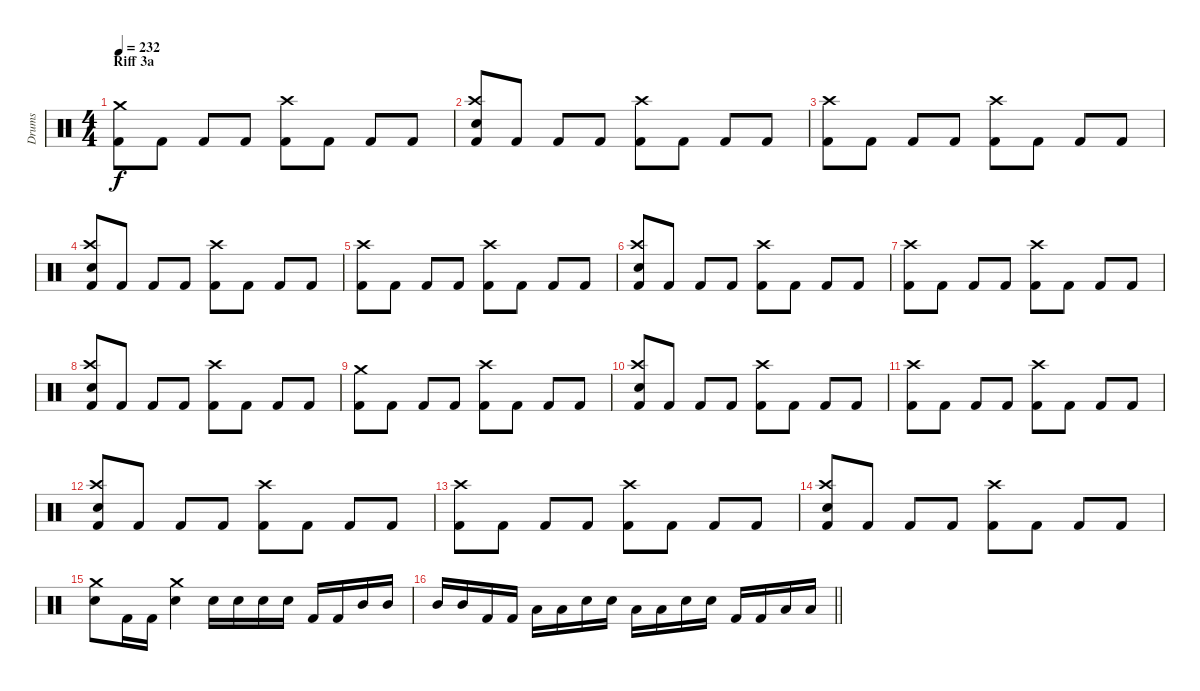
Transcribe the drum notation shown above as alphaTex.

\track ("Drums" "Drums") {instrument percussion}
\staff {score}
\articulation defaults
\ts (4 4)
\section ("" "Riff 3a")
\tempo 232
\clef neutral
\ks c
("Crash medium (hit)" "Kick (hit) 2").8{dy f} "Kick (hit) 2".8 "Kick (hit) 2".8 "Kick (hit) 2".8 ("Crash high (hit)" "Kick (hit) 2").8 "Kick (hit) 2".8 "Kick (hit) 2".8 "Kick (hit) 2".8 |
("Crash high (hit)" "Electric Snare (hit)" "Kick (hit) 2").8 "Kick (hit) 2".8 "Kick (hit) 2".8 "Kick (hit) 2".8 ("Crash high (hit)" "Kick (hit) 2").8 "Kick (hit) 2".8 "Kick (hit) 2".8 "Kick (hit) 2".8 |
("Crash high (hit)" "Kick (hit) 2").8 "Kick (hit) 2".8 "Kick (hit) 2".8 "Kick (hit) 2".8 ("Crash high (hit)" "Kick (hit) 2").8 "Kick (hit) 2".8 "Kick (hit) 2".8 "Kick (hit) 2".8 |
("Crash high (hit)" "Electric Snare (hit)" "Kick (hit) 2").8 "Kick (hit) 2".8 "Kick (hit) 2".8 "Kick (hit) 2".8 ("Crash high (hit)" "Kick (hit) 2").8 "Kick (hit) 2".8 "Kick (hit) 2".8 "Kick (hit) 2".8 |
("Crash high (hit)" "Kick (hit) 2").8 "Kick (hit) 2".8 "Kick (hit) 2".8 "Kick (hit) 2".8 ("Crash high (hit)" "Kick (hit) 2").8 "Kick (hit) 2".8 "Kick (hit) 2".8 "Kick (hit) 2".8 |
("Crash high (hit)" "Electric Snare (hit)" "Kick (hit) 2").8 "Kick (hit) 2".8 "Kick (hit) 2".8 "Kick (hit) 2".8 ("Crash high (hit)" "Kick (hit) 2").8 "Kick (hit) 2".8 "Kick (hit) 2".8 "Kick (hit) 2".8 |
("Crash high (hit)" "Kick (hit) 2").8 "Kick (hit) 2".8 "Kick (hit) 2".8 "Kick (hit) 2".8 ("Crash high (hit)" "Kick (hit) 2").8 "Kick (hit) 2".8 "Kick (hit) 2".8 "Kick (hit) 2".8 |
("Crash high (hit)" "Electric Snare (hit)" "Kick (hit) 2").8 "Kick (hit) 2".8 "Kick (hit) 2".8 "Kick (hit) 2".8 ("Crash high (hit)" "Kick (hit) 2").8 "Kick (hit) 2".8 "Kick (hit) 2".8 "Kick (hit) 2".8 |
("Crash medium (hit)" "Kick (hit) 2").8 "Kick (hit) 2".8 "Kick (hit) 2".8 "Kick (hit) 2".8 ("Crash high (hit)" "Kick (hit) 2").8 "Kick (hit) 2".8 "Kick (hit) 2".8 "Kick (hit) 2".8 |
("Crash high (hit)" "Electric Snare (hit)" "Kick (hit) 2").8 "Kick (hit) 2".8 "Kick (hit) 2".8 "Kick (hit) 2".8 ("Crash high (hit)" "Kick (hit) 2").8 "Kick (hit) 2".8 "Kick (hit) 2".8 "Kick (hit) 2".8 |
("Crash high (hit)" "Kick (hit) 2").8 "Kick (hit) 2".8 "Kick (hit) 2".8 "Kick (hit) 2".8 ("Crash high (hit)" "Kick (hit) 2").8 "Kick (hit) 2".8 "Kick (hit) 2".8 "Kick (hit) 2".8 |
("Crash high (hit)" "Electric Snare (hit)" "Kick (hit) 2").8 "Kick (hit) 2".8 "Kick (hit) 2".8 "Kick (hit) 2".8 ("Crash high (hit)" "Kick (hit) 2").8 "Kick (hit) 2".8 "Kick (hit) 2".8 "Kick (hit) 2".8 |
("Crash high (hit)" "Kick (hit) 2").8 "Kick (hit) 2".8 "Kick (hit) 2".8 "Kick (hit) 2".8 ("Crash high (hit)" "Kick (hit) 2").8 "Kick (hit) 2".8 "Kick (hit) 2".8 "Kick (hit) 2".8 |
("Crash high (hit)" "Electric Snare (hit)" "Kick (hit) 2").8 "Kick (hit) 2".8 "Kick (hit) 2".8 "Kick (hit) 2".8 ("Crash high (hit)" "Kick (hit) 2").8 "Kick (hit) 2".8 "Kick (hit) 2".8 "Kick (hit) 2".8 |
("Crash medium (hit)" "Electric Snare (hit)").8 "Kick (hit) 2".16 "Kick (hit) 2".16 ("Crash medium (hit)" "Electric Snare (hit)").4 "Electric Snare (hit)".16 "Electric Snare (hit)".16 "Electric Snare (hit)".16 "Electric Snare (hit)".16 "Kick (hit) 2".16 "Kick (hit) 2".16 "Mid Tom (hit)".16 "Mid Tom (hit)".16 |
\barLineRight lightlight "Mid Tom (hit)".16 "Mid Tom (hit)".16 "Kick (hit) 2".16 "Kick (hit) 2".16 "Low Tom (hit)".16 "Low Tom (hit)".16 "Electric Snare (hit)".16 "Electric Snare (hit)".16 "Low Tom (hit)".16 "Low Tom (hit)".16 "Electric Snare (hit)".16 "Electric Snare (hit)".16 "Kick (hit) 2".16 "Kick (hit) 2".16 "Low Floor Tom (hit)".16 "Low Floor Tom (hit)".16
